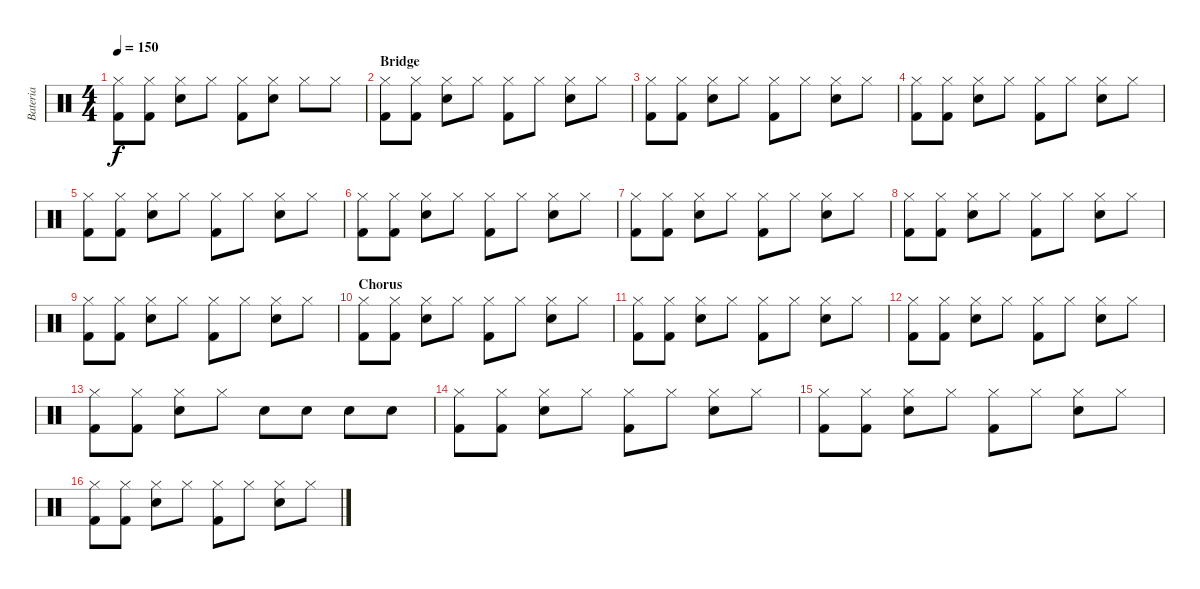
\track ("Bateria" "Bateria") {instrument percussion}
\staff {score}
\articulation defaults
\ts (4 4)
\tempo 150
\clef neutral
\ks c
("Hi-Hat (closed)" "Kick (hit) 2").8{dy f} ("Hi-Hat (closed)" "Kick (hit) 2").8 ("Hi-Hat (closed)" "Snare (hit) 2").8 "Hi-Hat (closed)".8 ("Hi-Hat (closed)" "Kick (hit) 2").8 ("Hi-Hat (closed)" "Snare (hit) 2").8 "Hi-Hat (closed)".8 "Hi-Hat (closed)".8 |
\section ("" "Bridge")
("Hi-Hat (closed)" "Kick (hit) 2").8 ("Hi-Hat (closed)" "Kick (hit) 2").8 ("Hi-Hat (closed)" "Snare (hit) 2").8 "Hi-Hat (closed)".8 ("Hi-Hat (closed)" "Kick (hit) 2").8 "Hi-Hat (closed)".8 ("Hi-Hat (closed)" "Snare (hit) 2").8 "Hi-Hat (closed)".8 |
("Hi-Hat (closed)" "Kick (hit) 2").8 ("Hi-Hat (closed)" "Kick (hit) 2").8 ("Hi-Hat (closed)" "Snare (hit) 2").8 "Hi-Hat (closed)".8 ("Hi-Hat (closed)" "Kick (hit) 2").8 "Hi-Hat (closed)".8 ("Hi-Hat (closed)" "Snare (hit) 2").8 "Hi-Hat (closed)".8 |
("Hi-Hat (closed)" "Kick (hit) 2").8 ("Hi-Hat (closed)" "Kick (hit) 2").8 ("Hi-Hat (closed)" "Snare (hit) 2").8 "Hi-Hat (closed)".8 ("Hi-Hat (closed)" "Kick (hit) 2").8 "Hi-Hat (closed)".8 ("Hi-Hat (closed)" "Snare (hit) 2").8 "Hi-Hat (closed)".8 |
("Hi-Hat (closed)" "Kick (hit) 2").8 ("Hi-Hat (closed)" "Kick (hit) 2").8 ("Hi-Hat (closed)" "Snare (hit) 2").8 "Hi-Hat (closed)".8 ("Hi-Hat (closed)" "Kick (hit) 2").8 "Hi-Hat (closed)".8 ("Hi-Hat (closed)" "Snare (hit) 2").8 "Hi-Hat (closed)".8 |
("Hi-Hat (closed)" "Kick (hit) 2").8 ("Hi-Hat (closed)" "Kick (hit) 2").8 ("Hi-Hat (closed)" "Snare (hit) 2").8 "Hi-Hat (closed)".8 ("Hi-Hat (closed)" "Kick (hit) 2").8 "Hi-Hat (closed)".8 ("Hi-Hat (closed)" "Snare (hit) 2").8 "Hi-Hat (closed)".8 |
("Hi-Hat (closed)" "Kick (hit) 2").8 ("Hi-Hat (closed)" "Kick (hit) 2").8 ("Hi-Hat (closed)" "Snare (hit) 2").8 "Hi-Hat (closed)".8 ("Hi-Hat (closed)" "Kick (hit) 2").8 "Hi-Hat (closed)".8 ("Hi-Hat (closed)" "Snare (hit) 2").8 "Hi-Hat (closed)".8 |
("Hi-Hat (closed)" "Kick (hit) 2").8 ("Hi-Hat (closed)" "Kick (hit) 2").8 ("Hi-Hat (closed)" "Snare (hit) 2").8 "Hi-Hat (closed)".8 ("Hi-Hat (closed)" "Kick (hit) 2").8 "Hi-Hat (closed)".8 ("Hi-Hat (closed)" "Snare (hit) 2").8 "Hi-Hat (closed)".8 |
("Hi-Hat (closed)" "Kick (hit) 2").8 ("Hi-Hat (closed)" "Kick (hit) 2").8 ("Hi-Hat (closed)" "Snare (hit) 2").8 "Hi-Hat (closed)".8 ("Hi-Hat (closed)" "Kick (hit) 2").8 "Hi-Hat (closed)".8 ("Hi-Hat (closed)" "Snare (hit) 2").8 "Hi-Hat (closed)".8 |
\section ("" "Chorus")
("Hi-Hat (closed)" "Kick (hit) 2").8 ("Hi-Hat (closed)" "Kick (hit) 2").8 ("Hi-Hat (closed)" "Snare (hit) 2").8 "Hi-Hat (closed)".8 ("Hi-Hat (closed)" "Kick (hit) 2").8 "Hi-Hat (closed)".8 ("Hi-Hat (closed)" "Snare (hit) 2").8 "Hi-Hat (closed)".8 |
("Hi-Hat (closed)" "Kick (hit) 2").8 ("Hi-Hat (closed)" "Kick (hit) 2").8 ("Hi-Hat (closed)" "Snare (hit) 2").8 "Hi-Hat (closed)".8 ("Hi-Hat (closed)" "Kick (hit) 2").8 "Hi-Hat (closed)".8 ("Hi-Hat (closed)" "Snare (hit) 2").8 "Hi-Hat (closed)".8 |
("Hi-Hat (closed)" "Kick (hit) 2").8 ("Hi-Hat (closed)" "Kick (hit) 2").8 ("Hi-Hat (closed)" "Snare (hit) 2").8 "Hi-Hat (closed)".8 ("Hi-Hat (closed)" "Kick (hit) 2").8 "Hi-Hat (closed)".8 ("Hi-Hat (closed)" "Snare (hit) 2").8 "Hi-Hat (closed)".8 |
("Hi-Hat (closed)" "Kick (hit) 2").8 ("Hi-Hat (closed)" "Kick (hit) 2").8 ("Hi-Hat (closed)" "Snare (hit) 2").8 "Hi-Hat (closed)".8 "Snare (hit) 2".8 "Snare (hit) 2".8 "Snare (hit) 2".8 "Snare (hit) 2".8 |
("Hi-Hat (closed)" "Kick (hit) 2").8 ("Hi-Hat (closed)" "Kick (hit) 2").8 ("Hi-Hat (closed)" "Snare (hit) 2").8 "Hi-Hat (closed)".8 ("Hi-Hat (closed)" "Kick (hit) 2").8 "Hi-Hat (closed)".8 ("Hi-Hat (closed)" "Snare (hit) 2").8 "Hi-Hat (closed)".8 |
("Hi-Hat (closed)" "Kick (hit) 2").8 ("Hi-Hat (closed)" "Kick (hit) 2").8 ("Hi-Hat (closed)" "Snare (hit) 2").8 "Hi-Hat (closed)".8 ("Hi-Hat (closed)" "Kick (hit) 2").8 "Hi-Hat (closed)".8 ("Hi-Hat (closed)" "Snare (hit) 2").8 "Hi-Hat (closed)".8 |
("Hi-Hat (closed)" "Kick (hit) 2").8 ("Hi-Hat (closed)" "Kick (hit) 2").8 ("Hi-Hat (closed)" "Snare (hit) 2").8 "Hi-Hat (closed)".8 ("Hi-Hat (closed)" "Kick (hit) 2").8 "Hi-Hat (closed)".8 ("Hi-Hat (closed)" "Snare (hit) 2").8 "Hi-Hat (closed)".8
